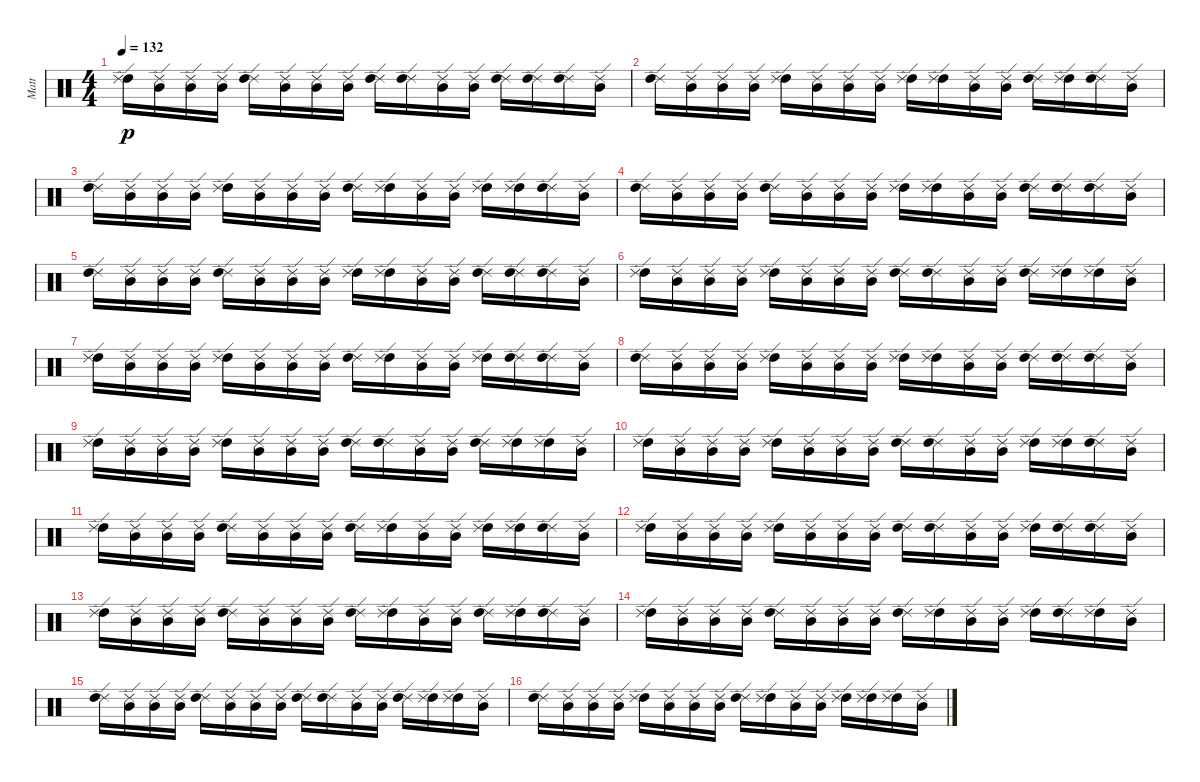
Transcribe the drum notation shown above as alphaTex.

\track ("Matt" "Matt") {instrument percussion}
\staff {score}
\articulation defaults
\ts (4 4)
\tempo 132
\clef neutral
\ks c
("High Tom (hit)" "Ride (edge) 2").16{dy p} ("Mid Tom (hit)" "Ride (edge) 2").16 ("Mid Tom (hit)" "Ride (edge) 2").16 ("Mid Tom (hit)" "Ride (edge) 2").16 ("Ride (edge) 2" "High Tom (hit)").16 ("Mid Tom (hit)" "Ride (edge) 2").16 ("Mid Tom (hit)" "Ride (edge) 2").16 ("Mid Tom (hit)" "Ride (edge) 2").16 ("Ride (edge) 2" "High Tom (hit)").16 ("Ride (edge) 2" "High Tom (hit)").16 ("Ride (edge) 2" "Mid Tom (hit)").16 ("Ride (edge) 2" "Mid Tom (hit)").16 ("Ride (edge) 2" "High Tom (hit)").16 ("Ride (edge) 2" "High Tom (hit)").16 ("Ride (edge) 2" "High Tom (hit)").16 ("Mid Tom (hit)" "Ride (edge) 2").16 |
("Ride (edge) 2" "High Tom (hit)").16 ("Ride (edge) 2" "Mid Tom (hit)").16 ("Ride (edge) 2" "Mid Tom (hit)").16 ("Mid Tom (hit)" "Ride (edge) 2").16 ("High Tom (hit)" "Ride (edge) 2").16 ("Ride (edge) 2" "Mid Tom (hit)").16 ("Mid Tom (hit)" "Ride (edge) 2").16 ("Mid Tom (hit)" "Ride (edge) 2").16 ("High Tom (hit)" "Ride (edge) 2").16 ("High Tom (hit)" "Ride (edge) 2").16 ("Ride (edge) 2" "Mid Tom (hit)").16 ("Mid Tom (hit)" "Ride (edge) 2").16 ("Ride (edge) 2" "High Tom (hit)").16 ("High Tom (hit)" "Ride (edge) 2").16 ("Ride (edge) 2" "High Tom (hit)").16 ("Mid Tom (hit)" "Ride (edge) 2").16 |
("Ride (edge) 2" "High Tom (hit)").16 ("Ride (edge) 2" "Mid Tom (hit)").16 ("Mid Tom (hit)" "Ride (edge) 2").16 ("Mid Tom (hit)" "Ride (edge) 2").16 ("High Tom (hit)" "Ride (edge) 2").16 ("Ride (edge) 2" "Mid Tom (hit)").16 ("Ride (edge) 2" "Mid Tom (hit)").16 ("Mid Tom (hit)" "Ride (edge) 2").16 ("Ride (edge) 2" "High Tom (hit)").16 ("High Tom (hit)" "Ride (edge) 2").16 ("Ride (edge) 2" "Mid Tom (hit)").16 ("Mid Tom (hit)" "Ride (edge) 2").16 ("High Tom (hit)" "Ride (edge) 2").16 ("High Tom (hit)" "Ride (edge) 2").16 ("Ride (edge) 2" "High Tom (hit)").16 ("Ride (edge) 2" "Mid Tom (hit)").16 |
("Ride (edge) 2" "High Tom (hit)").16 ("Mid Tom (hit)" "Ride (edge) 2").16 ("Ride (edge) 2" "Mid Tom (hit)").16 ("Mid Tom (hit)" "Ride (edge) 2").16 ("Ride (edge) 2" "High Tom (hit)").16 ("Ride (edge) 2" "Mid Tom (hit)").16 ("Mid Tom (hit)" "Ride (edge) 2").16 ("Ride (edge) 2" "Mid Tom (hit)").16 ("High Tom (hit)" "Ride (edge) 2").16 ("High Tom (hit)" "Ride (edge) 2").16 ("Ride (edge) 2" "Mid Tom (hit)").16 ("Ride (edge) 2" "Mid Tom (hit)").16 ("Ride (edge) 2" "High Tom (hit)").16 ("Ride (edge) 2" "High Tom (hit)").16 ("Ride (edge) 2" "High Tom (hit)").16 ("Ride (edge) 2" "Mid Tom (hit)").16 |
("Ride (edge) 2" "High Tom (hit)").16 ("Mid Tom (hit)" "Ride (edge) 2").16 ("Ride (edge) 2" "Mid Tom (hit)").16 ("Mid Tom (hit)" "Ride (edge) 2").16 ("Ride (edge) 2" "High Tom (hit)").16 ("Ride (edge) 2" "Mid Tom (hit)").16 ("Ride (edge) 2" "Mid Tom (hit)").16 ("Ride (edge) 2" "Mid Tom (hit)").16 ("High Tom (hit)" "Ride (edge) 2").16 ("High Tom (hit)" "Ride (edge) 2").16 ("Mid Tom (hit)" "Ride (edge) 2").16 ("Ride (edge) 2" "Mid Tom (hit)").16 ("Ride (edge) 2" "High Tom (hit)").16 ("Ride (edge) 2" "High Tom (hit)").16 ("Ride (edge) 2" "High Tom (hit)").16 ("Ride (edge) 2" "Mid Tom (hit)").16 |
("High Tom (hit)" "Ride (edge) 2").16 ("Mid Tom (hit)" "Ride (edge) 2").16 ("Mid Tom (hit)" "Ride (edge) 2").16 ("Mid Tom (hit)" "Ride (edge) 2").16 ("High Tom (hit)" "Ride (edge) 2").16 ("Ride (edge) 2" "Mid Tom (hit)").16 ("Mid Tom (hit)" "Ride (edge) 2").16 ("Ride (edge) 2" "Mid Tom (hit)").16 ("Ride (edge) 2" "High Tom (hit)").16 ("Ride (edge) 2" "High Tom (hit)").16 ("Mid Tom (hit)" "Ride (edge) 2").16 ("Mid Tom (hit)" "Ride (edge) 2").16 ("Ride (edge) 2" "High Tom (hit)").16 ("High Tom (hit)" "Ride (edge) 2").16 ("High Tom (hit)" "Ride (edge) 2").16 ("Mid Tom (hit)" "Ride (edge) 2").16 |
("High Tom (hit)" "Ride (edge) 2").16 ("Mid Tom (hit)" "Ride (edge) 2").16 ("Mid Tom (hit)" "Ride (edge) 2").16 ("Ride (edge) 2" "Mid Tom (hit)").16 ("High Tom (hit)" "Ride (edge) 2").16 ("Mid Tom (hit)" "Ride (edge) 2").16 ("Mid Tom (hit)" "Ride (edge) 2").16 ("Mid Tom (hit)" "Ride (edge) 2").16 ("Ride (edge) 2" "High Tom (hit)").16 ("High Tom (hit)" "Ride (edge) 2").16 ("Mid Tom (hit)" "Ride (edge) 2").16 ("Mid Tom (hit)" "Ride (edge) 2").16 ("High Tom (hit)" "Ride (edge) 2").16 ("Ride (edge) 2" "High Tom (hit)").16 ("Ride (edge) 2" "High Tom (hit)").16 ("Mid Tom (hit)" "Ride (edge) 2").16 |
("Ride (edge) 2" "High Tom (hit)").16 ("Mid Tom (hit)" "Ride (edge) 2").16 ("Ride (edge) 2" "Mid Tom (hit)").16 ("Ride (edge) 2" "Mid Tom (hit)").16 ("High Tom (hit)" "Ride (edge) 2").16 ("Mid Tom (hit)" "Ride (edge) 2").16 ("Ride (edge) 2" "Mid Tom (hit)").16 ("Mid Tom (hit)" "Ride (edge) 2").16 ("High Tom (hit)" "Ride (edge) 2").16 ("High Tom (hit)" "Ride (edge) 2").16 ("Mid Tom (hit)" "Ride (edge) 2").16 ("Mid Tom (hit)" "Ride (edge) 2").16 ("Ride (edge) 2" "High Tom (hit)").16 ("Ride (edge) 2" "High Tom (hit)").16 ("Ride (edge) 2" "High Tom (hit)").16 ("Ride (edge) 2" "Mid Tom (hit)").16 |
("High Tom (hit)" "Ride (edge) 2").16 ("Mid Tom (hit)" "Ride (edge) 2").16 ("Ride (edge) 2" "Mid Tom (hit)").16 ("Ride (edge) 2" "Mid Tom (hit)").16 ("High Tom (hit)" "Ride (edge) 2").16 ("Mid Tom (hit)" "Ride (edge) 2").16 ("Ride (edge) 2" "Mid Tom (hit)").16 ("Mid Tom (hit)" "Ride (edge) 2").16 ("Ride (edge) 2" "High Tom (hit)").16 ("Ride (edge) 2" "High Tom (hit)").16 ("Mid Tom (hit)" "Ride (edge) 2").16 ("Ride (edge) 2" "Mid Tom (hit)").16 ("Ride (edge) 2" "High Tom (hit)").16 ("High Tom (hit)" "Ride (edge) 2").16 ("High Tom (hit)" "Ride (edge) 2").16 ("Mid Tom (hit)" "Ride (edge) 2").16 |
("High Tom (hit)" "Ride (edge) 2").16 ("Mid Tom (hit)" "Ride (edge) 2").16 ("Ride (edge) 2" "Mid Tom (hit)").16 ("Mid Tom (hit)" "Ride (edge) 2").16 ("High Tom (hit)" "Ride (edge) 2").16 ("Ride (edge) 2" "Mid Tom (hit)").16 ("Mid Tom (hit)" "Ride (edge) 2").16 ("Ride (edge) 2" "Mid Tom (hit)").16 ("Ride (edge) 2" "High Tom (hit)").16 ("Ride (edge) 2" "High Tom (hit)").16 ("Mid Tom (hit)" "Ride (edge) 2").16 ("Mid Tom (hit)" "Ride (edge) 2").16 ("High Tom (hit)" "Ride (edge) 2").16 ("High Tom (hit)" "Ride (edge) 2").16 ("Ride (edge) 2" "High Tom (hit)").16 ("Mid Tom (hit)" "Ride (edge) 2").16 |
("High Tom (hit)" "Ride (edge) 2").16 ("Mid Tom (hit)" "Ride (edge) 2").16 ("Ride (edge) 2" "Mid Tom (hit)").16 ("Mid Tom (hit)" "Ride (edge) 2").16 ("Ride (edge) 2" "High Tom (hit)").16 ("Ride (edge) 2" "Mid Tom (hit)").16 ("Mid Tom (hit)" "Ride (edge) 2").16 ("Mid Tom (hit)" "Ride (edge) 2").16 ("Ride (edge) 2" "High Tom (hit)").16 ("High Tom (hit)" "Ride (edge) 2").16 ("Mid Tom (hit)" "Ride (edge) 2").16 ("Mid Tom (hit)" "Ride (edge) 2").16 ("High Tom (hit)" "Ride (edge) 2").16 ("High Tom (hit)" "Ride (edge) 2").16 ("Ride (edge) 2" "High Tom (hit)").16 ("Mid Tom (hit)" "Ride (edge) 2").16 |
("High Tom (hit)" "Ride (edge) 2").16 ("Ride (edge) 2" "Mid Tom (hit)").16 ("Mid Tom (hit)" "Ride (edge) 2").16 ("Ride (edge) 2" "Mid Tom (hit)").16 ("High Tom (hit)" "Ride (edge) 2").16 ("Ride (edge) 2" "Mid Tom (hit)").16 ("Mid Tom (hit)" "Ride (edge) 2").16 ("Mid Tom (hit)" "Ride (edge) 2").16 ("Ride (edge) 2" "High Tom (hit)").16 ("Ride (edge) 2" "High Tom (hit)").16 ("Mid Tom (hit)" "Ride (edge) 2").16 ("Ride (edge) 2" "Mid Tom (hit)").16 ("High Tom (hit)" "Ride (edge) 2").16 ("Ride (edge) 2" "High Tom (hit)").16 ("Ride (edge) 2" "High Tom (hit)").16 ("Ride (edge) 2" "Mid Tom (hit)").16 |
("High Tom (hit)" "Ride (edge) 2").16 ("Ride (edge) 2" "Mid Tom (hit)").16 ("Mid Tom (hit)" "Ride (edge) 2").16 ("Mid Tom (hit)" "Ride (edge) 2").16 ("Ride (edge) 2" "High Tom (hit)").16 ("Mid Tom (hit)" "Ride (edge) 2").16 ("Mid Tom (hit)" "Ride (edge) 2").16 ("Mid Tom (hit)" "Ride (edge) 2").16 ("Ride (edge) 2" "High Tom (hit)").16 ("High Tom (hit)" "Ride (edge) 2").16 ("Mid Tom (hit)" "Ride (edge) 2").16 ("Ride (edge) 2" "Mid Tom (hit)").16 ("Ride (edge) 2" "High Tom (hit)").16 ("High Tom (hit)" "Ride (edge) 2").16 ("Ride (edge) 2" "High Tom (hit)").16 ("Mid Tom (hit)" "Ride (edge) 2").16 |
("High Tom (hit)" "Ride (edge) 2").16 ("Ride (edge) 2" "Mid Tom (hit)").16 ("Ride (edge) 2" "Mid Tom (hit)").16 ("Ride (edge) 2" "Mid Tom (hit)").16 ("Ride (edge) 2" "High Tom (hit)").16 ("Ride (edge) 2" "Mid Tom (hit)").16 ("Mid Tom (hit)" "Ride (edge) 2").16 ("Ride (edge) 2" "Mid Tom (hit)").16 ("Ride (edge) 2" "High Tom (hit)").16 ("High Tom (hit)" "Ride (edge) 2").16 ("Mid Tom (hit)" "Ride (edge) 2").16 ("Ride (edge) 2" "Mid Tom (hit)").16 ("High Tom (hit)" "Ride (edge) 2").16 ("Ride (edge) 2" "High Tom (hit)").16 ("High Tom (hit)" "Ride (edge) 2").16 ("Mid Tom (hit)" "Ride (edge) 2").16 |
("Ride (edge) 2" "High Tom (hit)").16 ("Mid Tom (hit)" "Ride (edge) 2").16 ("Ride (edge) 2" "Mid Tom (hit)").16 ("Ride (edge) 2" "Mid Tom (hit)").16 ("Ride (edge) 2" "High Tom (hit)").16 ("Mid Tom (hit)" "Ride (edge) 2").16 ("Ride (edge) 2" "Mid Tom (hit)").16 ("Mid Tom (hit)" "Ride (edge) 2").16 ("Ride (edge) 2" "High Tom (hit)").16 ("Ride (edge) 2" "High Tom (hit)").16 ("Mid Tom (hit)" "Ride (edge) 2").16 ("Mid Tom (hit)" "Ride (edge) 2").16 ("Ride (edge) 2" "High Tom (hit)").16 ("High Tom (hit)" "Ride (edge) 2").16 ("High Tom (hit)" "Ride (edge) 2").16 ("Mid Tom (hit)" "Ride (edge) 2").16 |
("Ride (edge) 2" "High Tom (hit)").16 ("Mid Tom (hit)" "Ride (edge) 2").16 ("Mid Tom (hit)" "Ride (edge) 2").16 ("Mid Tom (hit)" "Ride (edge) 2").16 ("High Tom (hit)" "Ride (edge) 2").16 ("Ride (edge) 2" "Mid Tom (hit)").16 ("Mid Tom (hit)" "Ride (edge) 2").16 ("Ride (edge) 2" "Mid Tom (hit)").16 ("Ride (edge) 2" "High Tom (hit)").16 ("High Tom (hit)" "Ride (edge) 2").16 ("Mid Tom (hit)" "Ride (edge) 2").16 ("Mid Tom (hit)" "Ride (edge) 2").16 ("High Tom (hit)" "Ride (edge) 2").16 ("High Tom (hit)" "Ride (edge) 2").16 ("High Tom (hit)" "Ride (edge) 2").16 ("Mid Tom (hit)" "Ride (edge) 2").16
